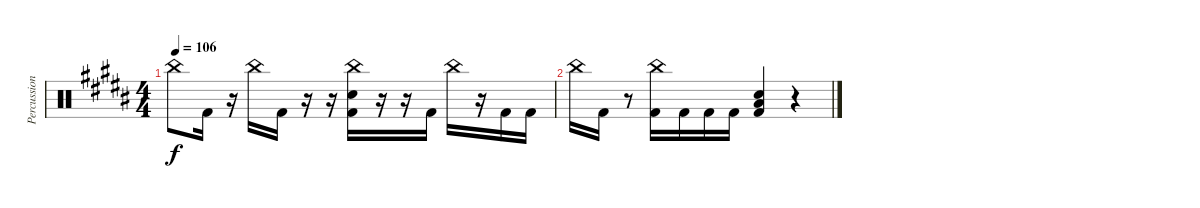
\track ("Percussion" "Percussion") {instrument percussion}
\staff {score}
\articulation defaults
\ts (4 4)
\tempo 106
\clef neutral
\ks g#minor "China (hit)".8{dy f} "Kick (hit) 2".16
r.16 "China (hit)".16 "Kick (hit) 2".16 r.16 r.16 ("China (hit)" "Electric Snare (hit)" "Kick (hit) 2").16 r.16 r.16 "Kick (hit) 2".16 "China (hit)".16 r.16 "Kick (hit) 2".16 "Kick (hit) 2".16 |
"China (hit)".16 "Kick (hit) 2".16 r.8 ("China (hit)" "Kick (hit) 2").16 "Kick (hit) 2".16 "Kick (hit) 2".16 "Kick (hit) 2".16 ("Electric Snare (hit)" "Low Floor Tom (hit)" "Kick (hit) 2").4 r.4
